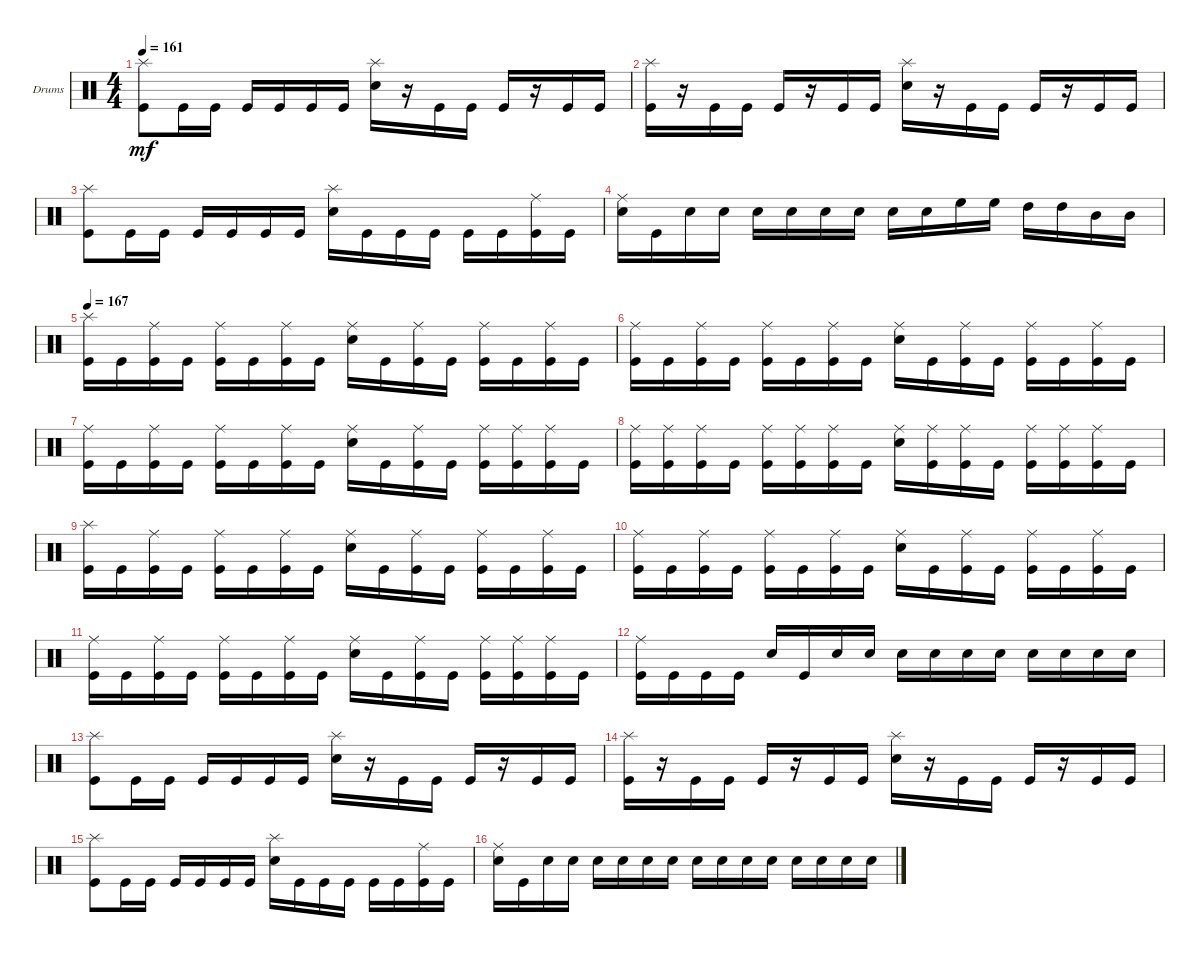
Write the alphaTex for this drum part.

\bracketExtendMode groupsimilarinstruments
\firstSystemTrackNameOrientation horizontal
\otherSystemsTrackNameOrientation horizontal
\track ("Drumkit" "Drums") {instrument percussion}
\staff {score}
\articulation defaults
\ts (4 4)
\tempo 161
\clef neutral
\ks c
("Kick (hit)" "Splash (hit)").8{dy mf} "Kick (hit)".16 "Kick (hit)".16 "Kick (hit)".16 "Kick (hit)".16 "Kick (hit)".16 "Kick (hit)".16 ("Snare (hit) 2" "Splash (hit)").16 r.16 "Kick (hit)".16 "Kick (hit)".16 "Kick (hit)".16 r.16 "Kick (hit)".16 "Kick (hit)".16 |
("Kick (hit)" "Splash (hit)").16 r.16 "Kick (hit)".16 "Kick (hit)".16 "Kick (hit)".16 r.16 "Kick (hit)".16 "Kick (hit)".16 ("Snare (hit) 2" "Splash (hit)").16 r.16 "Kick (hit)".16 "Kick (hit)".16 "Kick (hit)".16 r.16 "Kick (hit)".16 "Kick (hit)".16 |
("Kick (hit)" "Splash (hit)").8 "Kick (hit)".16 "Kick (hit)".16 "Kick (hit)".16 "Kick (hit)".16 "Kick (hit)".16 "Kick (hit)".16 ("Snare (hit) 2" "Splash (hit)").16 "Kick (hit)".16 "Kick (hit)".16 "Kick (hit)".16 "Kick (hit)".16 "Kick (hit)".16 ("Kick (hit)" "Ride (middle)").16 "Kick (hit)".16 |
("Snare (hit) 2" "Ride (middle)").16 "Kick (hit)".16 "Snare (hit) 2".16 "Snare (hit) 2".16 "Snare (hit) 2".16 "Snare (hit) 2".16 "Snare (hit) 2".16 "Snare (hit) 2".16 "Snare (hit) 2".16 "Snare (hit) 2".16 "High Floor Tom (hit)".16 "High Floor Tom (hit)".16 "High Tom (hit)".16 "High Tom (hit)".16 "Mid Tom (hit)".16 "Mid Tom (hit)".16 |
\tempo 167
("Kick (hit)" "Splash (hit)").16 "Kick (hit)".16 ("Kick (hit)" "Ride (middle)").16 "Kick (hit)".16 ("Kick (hit)" "Ride (middle)").16 "Kick (hit)".16 ("Kick (hit)" "Ride (middle)").16 "Kick (hit)".16 ("Snare (hit) 2" "Ride (middle)").16 "Kick (hit)".16 ("Kick (hit)" "Ride (middle)").16 "Kick (hit)".16 ("Kick (hit)" "Ride (middle)").16 "Kick (hit)".16 ("Kick (hit)" "Ride (middle)").16 "Kick (hit)".16 |
("Kick (hit)" "Ride (middle)").16 "Kick (hit)".16 ("Kick (hit)" "Ride (middle)").16 "Kick (hit)".16 ("Kick (hit)" "Ride (middle)").16 "Kick (hit)".16 ("Kick (hit)" "Ride (middle)").16 "Kick (hit)".16 ("Snare (hit) 2" "Ride (middle)").16 "Kick (hit)".16 ("Kick (hit)" "Ride (middle)").16 "Kick (hit)".16 ("Kick (hit)" "Ride (middle)").16 "Kick (hit)".16 ("Kick (hit)" "Ride (middle)").16 "Kick (hit)".16 |
("Kick (hit)" "Ride (middle)").16 "Kick (hit)".16 ("Kick (hit)" "Ride (middle)").16 "Kick (hit)".16 ("Kick (hit)" "Ride (middle)").16 "Kick (hit)".16 ("Kick (hit)" "Ride (middle)").16 "Kick (hit)".16 ("Snare (hit) 2" "Ride (middle)").16 "Kick (hit)".16 ("Kick (hit)" "Ride (middle)").16 "Kick (hit)".16 ("Kick (hit)" "Ride (middle)").16 ("Kick (hit)" "Ride (middle)").16 ("Kick (hit)" "Ride (middle)").16 "Kick (hit)".16 |
("Kick (hit)" "Ride (middle)").16 ("Kick (hit)" "Ride (middle)").16 ("Kick (hit)" "Ride (middle)").16 "Kick (hit)".16 ("Kick (hit)" "Ride (middle)").16 ("Kick (hit)" "Ride (middle)").16 ("Kick (hit)" "Ride (middle)").16 "Kick (hit)".16 ("Snare (hit) 2" "Ride (middle)").16 ("Kick (hit)" "Ride (middle)").16 ("Kick (hit)" "Ride (middle)").16 "Kick (hit)".16 ("Kick (hit)" "Ride (middle)").16 ("Kick (hit)" "Ride (middle)").16 ("Kick (hit)" "Ride (middle)").16 "Kick (hit)".16 |
("Kick (hit)" "Splash (hit)").16 "Kick (hit)".16 ("Kick (hit)" "Ride (middle)").16 "Kick (hit)".16 ("Kick (hit)" "Ride (middle)").16 "Kick (hit)".16 ("Kick (hit)" "Ride (middle)").16 "Kick (hit)".16 ("Snare (hit) 2" "Ride (middle)").16 "Kick (hit)".16 ("Kick (hit)" "Ride (middle)").16 "Kick (hit)".16 ("Kick (hit)" "Ride (middle)").16 "Kick (hit)".16 ("Kick (hit)" "Ride (middle)").16 "Kick (hit)".16 |
("Kick (hit)" "Ride (middle)").16 "Kick (hit)".16 ("Kick (hit)" "Ride (middle)").16 "Kick (hit)".16 ("Kick (hit)" "Ride (middle)").16 "Kick (hit)".16 ("Kick (hit)" "Ride (middle)").16 "Kick (hit)".16 ("Snare (hit) 2" "Ride (middle)").16 "Kick (hit)".16 ("Kick (hit)" "Ride (middle)").16 "Kick (hit)".16 ("Kick (hit)" "Ride (middle)").16 "Kick (hit)".16 ("Kick (hit)" "Ride (middle)").16 "Kick (hit)".16 |
("Kick (hit)" "Ride (middle)").16 "Kick (hit)".16 ("Kick (hit)" "Ride (middle)").16 "Kick (hit)".16 ("Kick (hit)" "Ride (middle)").16 "Kick (hit)".16 ("Kick (hit)" "Ride (middle)").16 "Kick (hit)".16 ("Snare (hit) 2" "Ride (middle)").16 "Kick (hit)".16 ("Kick (hit)" "Ride (middle)").16 "Kick (hit)".16 ("Kick (hit)" "Ride (middle)").16 ("Kick (hit)" "Ride (middle)").16 ("Kick (hit)" "Ride (middle)").16 "Kick (hit)".16 |
("Kick (hit)" "Ride (middle)").16 "Kick (hit)".16 "Kick (hit)".16 "Kick (hit)".16 "Snare (hit) 2".16 "Kick (hit)".16 "Snare (hit) 2".16 "Snare (hit) 2".16 "Snare (hit) 2".16 "Snare (hit) 2".16 "Snare (hit) 2".16 "Snare (hit) 2".16 "Snare (hit) 2".16 "Snare (hit) 2".16 "Snare (hit) 2".16 "Snare (hit) 2".16 |
("Kick (hit)" "Splash (hit)").8 "Kick (hit)".16 "Kick (hit)".16 "Kick (hit)".16 "Kick (hit)".16 "Kick (hit)".16 "Kick (hit)".16 ("Snare (hit) 2" "Splash (hit)").16 r.16 "Kick (hit)".16 "Kick (hit)".16 "Kick (hit)".16 r.16 "Kick (hit)".16 "Kick (hit)".16 |
("Kick (hit)" "Splash (hit)").16 r.16 "Kick (hit)".16 "Kick (hit)".16 "Kick (hit)".16 r.16 "Kick (hit)".16 "Kick (hit)".16 ("Snare (hit) 2" "Splash (hit)").16 r.16 "Kick (hit)".16 "Kick (hit)".16 "Kick (hit)".16 r.16 "Kick (hit)".16 "Kick (hit)".16 |
("Kick (hit)" "Splash (hit)").8 "Kick (hit)".16 "Kick (hit)".16 "Kick (hit)".16 "Kick (hit)".16 "Kick (hit)".16 "Kick (hit)".16 ("Snare (hit) 2" "Splash (hit)").16 "Kick (hit)".16 "Kick (hit)".16 "Kick (hit)".16 "Kick (hit)".16 "Kick (hit)".16 ("Kick (hit)" "Ride (middle)").16 "Kick (hit)".16 |
("Snare (hit) 2" "Ride (middle)").16 "Kick (hit)".16 "Snare (hit) 2".16 "Snare (hit) 2".16 "Snare (hit) 2".16 "Snare (hit) 2".16 "Snare (hit) 2".16 "Snare (hit) 2".16 "Snare (hit) 2".16 "Snare (hit) 2".16 "Snare (hit) 2".16 "Snare (hit) 2".16 "Snare (hit) 2".16 "Snare (hit) 2".16 "Snare (hit) 2".16 "Snare (hit) 2".16
